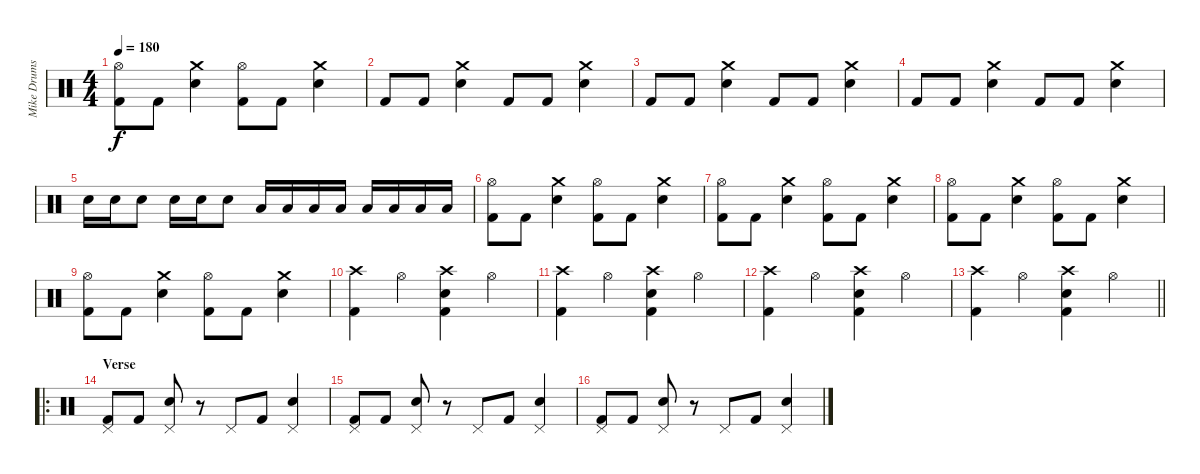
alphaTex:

\track ("Mike Drums" "Mike Drums") {instrument percussion}
\staff {score}
\articulation defaults
\ts (4 4)
\tempo 180
\clef neutral
\ks c
("Hi-Hat (open)" "Kick (hit) 2").8{dy f} "Kick (hit) 2".8 ("Crash medium (hit)" "Snare (hit) 2").4 ("Hi-Hat (open)" "Kick (hit) 2").8 "Kick (hit) 2".8 ("Crash medium (hit)" "Snare (hit) 2").4 |
"Kick (hit) 2".8 "Kick (hit) 2".8 ("Crash medium (hit)" "Snare (hit) 2").4 "Kick (hit) 2".8 "Kick (hit) 2".8 ("Crash medium (hit)" "Snare (hit) 2").4 |
"Kick (hit) 2".8 "Kick (hit) 2".8 ("Crash medium (hit)" "Snare (hit) 2").4 "Kick (hit) 2".8 "Kick (hit) 2".8 ("Crash medium (hit)" "Snare (hit) 2").4 |
"Kick (hit) 2".8 "Kick (hit) 2".8 ("Crash medium (hit)" "Snare (hit) 2").4 "Kick (hit) 2".8 "Kick (hit) 2".8 ("Crash medium (hit)" "Snare (hit) 2").4 |
"Snare (hit) 2".16 "Snare (hit) 2".16 "Snare (hit) 2".8 "Snare (hit) 2".16 "Snare (hit) 2".16 "Snare (hit) 2".8 "Low Tom (hit)".16 "Low Tom (hit)".16 "Low Tom (hit)".16 "Low Tom (hit)".16 "Low Tom (hit)".16 "Low Tom (hit)".16 "Low Tom (hit)".16 "Low Tom (hit)".16 |
("Hi-Hat (open)" "Kick (hit) 2").8 "Kick (hit) 2".8 ("Crash medium (hit)" "Snare (hit) 2").4 ("Hi-Hat (open)" "Kick (hit) 2").8 "Kick (hit) 2".8 ("Crash medium (hit)" "Snare (hit) 2").4 |
("Hi-Hat (open)" "Kick (hit) 2").8 "Kick (hit) 2".8 ("Crash medium (hit)" "Snare (hit) 2").4 ("Hi-Hat (open)" "Kick (hit) 2").8 "Kick (hit) 2".8 ("Crash medium (hit)" "Snare (hit) 2").4 |
("Hi-Hat (open)" "Kick (hit) 2").8 "Kick (hit) 2".8 ("Crash medium (hit)" "Snare (hit) 2").4 ("Hi-Hat (open)" "Kick (hit) 2").8 "Kick (hit) 2".8 ("Crash medium (hit)" "Snare (hit) 2").4 |
("Hi-Hat (open)" "Kick (hit) 2").8 "Kick (hit) 2".8 ("Crash medium (hit)" "Snare (hit) 2").4 ("Hi-Hat (open)" "Kick (hit) 2").8 "Kick (hit) 2".8 ("Crash medium (hit)" "Snare (hit) 2").4 |
("Crash high (hit)" "Kick (hit) 2").4 "Hi-Hat (open)".4 ("Crash high (hit)" "Snare (hit) 2" "Kick (hit) 2").4 "Hi-Hat (open)".4 |
("Crash high (hit)" "Kick (hit) 2").4 "Hi-Hat (open)".4 ("Crash high (hit)" "Snare (hit) 2" "Kick (hit) 2").4 "Hi-Hat (open)".4 |
("Crash high (hit)" "Kick (hit) 2").4 "Hi-Hat (open)".4 ("Crash high (hit)" "Snare (hit) 2" "Kick (hit) 2").4 "Hi-Hat (open)".4 |
\barLineRight lightlight
("Crash high (hit)" "Kick (hit) 2").4 "Hi-Hat (open)".4 ("Crash high (hit)" "Snare (hit) 2" "Kick (hit) 2").4 "Hi-Hat (open)".4 |
\ro
\section ("" "Verse")
("Pedal Hi-Hat (hit)" "Kick (hit) 2").8 "Kick (hit) 2".8 ("Pedal Hi-Hat (hit)" "Snare (hit) 2").8 r.8 "Pedal Hi-Hat (hit)".8 "Kick (hit) 2".8 ("Pedal Hi-Hat (hit)" "Snare (hit) 2").4 |
("Pedal Hi-Hat (hit)" "Kick (hit) 2").8 "Kick (hit) 2".8 ("Pedal Hi-Hat (hit)" "Snare (hit) 2").8 r.8 "Pedal Hi-Hat (hit)".8 "Kick (hit) 2".8 ("Pedal Hi-Hat (hit)" "Snare (hit) 2").4 |
("Pedal Hi-Hat (hit)" "Kick (hit) 2").8 "Kick (hit) 2".8 ("Pedal Hi-Hat (hit)" "Snare (hit) 2").8 r.8 "Pedal Hi-Hat (hit)".8 "Kick (hit) 2".8 ("Pedal Hi-Hat (hit)" "Snare (hit) 2").4
